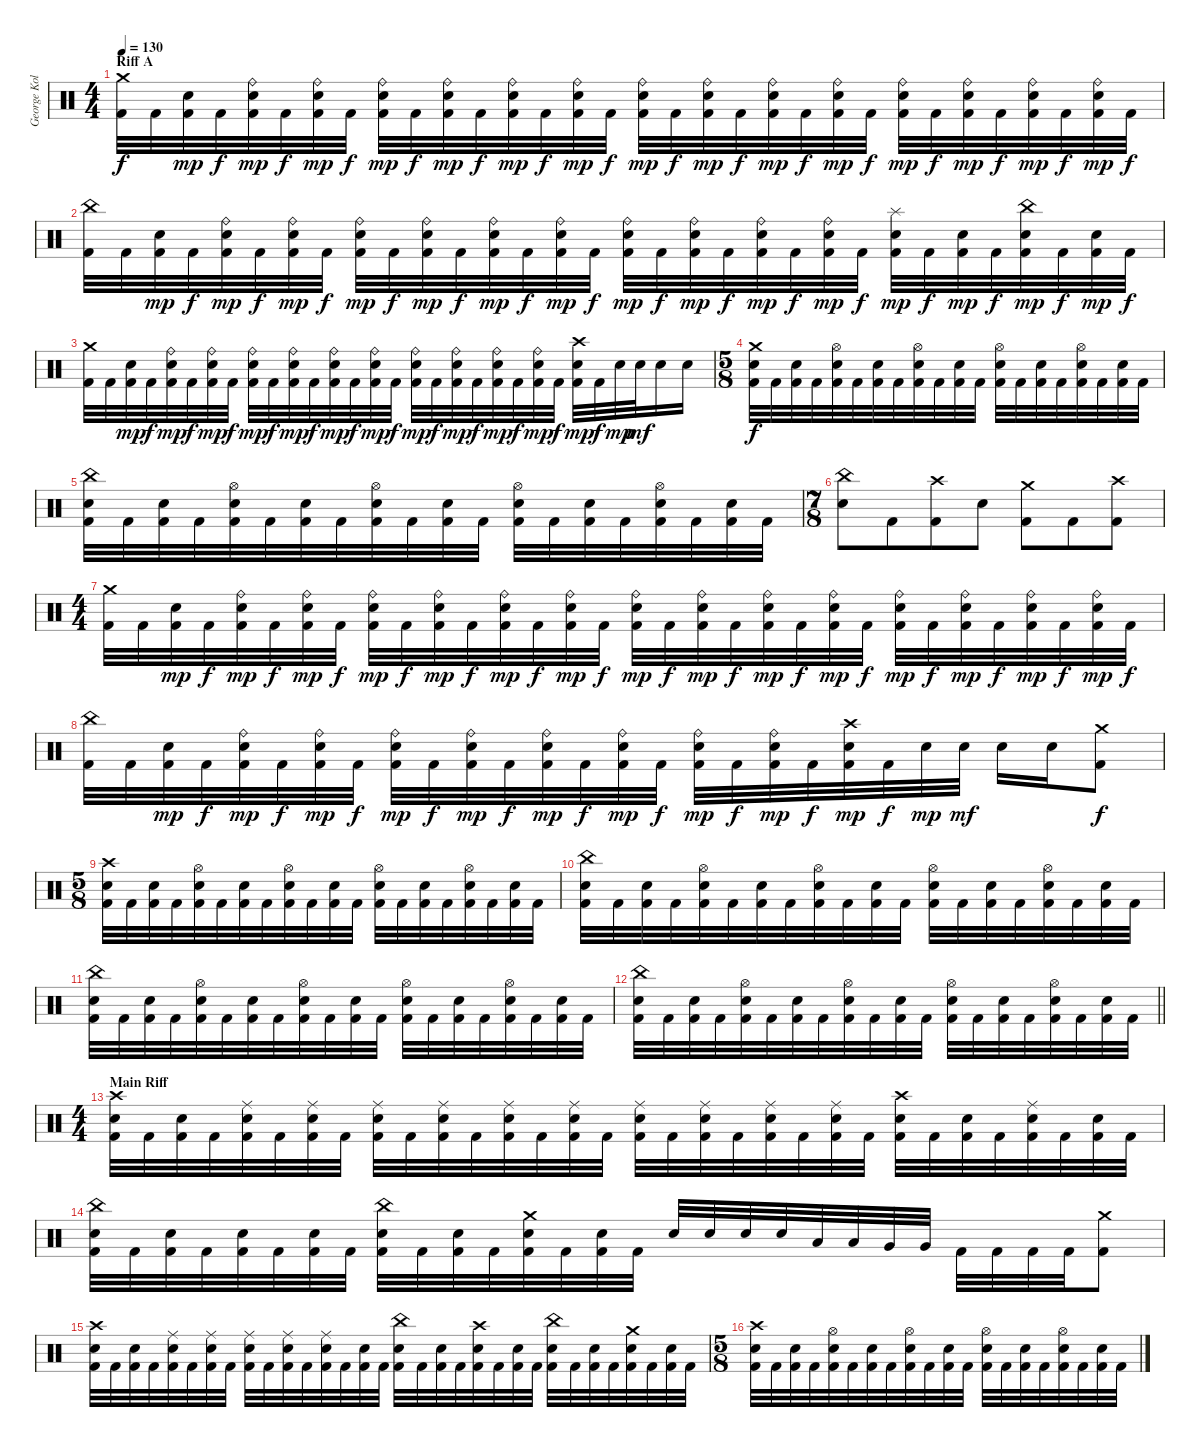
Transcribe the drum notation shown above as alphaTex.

\track ("George Kollias" "George Kol") {instrument percussion}
\staff {score}
\articulation defaults
\ts (4 4)
\section ("" "Riff A")
\tempo 130
\clef neutral
\ks c
("Crash medium (hit)" "Kick (hit) 2").32{dy f} "Kick (hit) 2".32 ("Electric Snare (hit)" "Kick (hit) 2").32{dy mp} "Kick (hit) 2".32{dy f} ("Ride (bell)" "Electric Snare (hit)" "Kick (hit) 2").32{dy mp} "Kick (hit) 2".32{dy f} ("Ride (bell)" "Electric Snare (hit)" "Kick (hit) 2").32{dy mp} "Kick (hit) 2".32{dy f} ("Ride (bell)" "Electric Snare (hit)" "Kick (hit) 2").32{dy mp} "Kick (hit) 2".32{dy f} ("Ride (bell)" "Electric Snare (hit)" "Kick (hit) 2").32{dy mp} "Kick (hit) 2".32{dy f} ("Ride (bell)" "Electric Snare (hit)" "Kick (hit) 2").32{dy mp} "Kick (hit) 2".32{dy f} ("Ride (bell)" "Electric Snare (hit)" "Kick (hit) 2").32{dy mp} "Kick (hit) 2".32{dy f} ("Ride (bell)" "Electric Snare (hit)" "Kick (hit) 2").32{dy mp} "Kick (hit) 2".32{dy f} ("Ride (bell)" "Electric Snare (hit)" "Kick (hit) 2").32{dy mp} "Kick (hit) 2".32{dy f} ("Ride (bell)" "Electric Snare (hit)" "Kick (hit) 2").32{dy mp} "Kick (hit) 2".32{dy f} ("Ride (bell)" "Electric Snare (hit)" "Kick (hit) 2").32{dy mp} "Kick (hit) 2".32{dy f} ("Ride (bell)" "Electric Snare (hit)" "Kick (hit) 2").32{dy mp} "Kick (hit) 2".32{dy f} ("Ride (bell)" "Electric Snare (hit)" "Kick (hit) 2").32{dy mp} "Kick (hit) 2".32{dy f} ("Ride (bell)" "Electric Snare (hit)" "Kick (hit) 2").32{dy mp} "Kick (hit) 2".32{dy f} ("Ride (bell)" "Electric Snare (hit)" "Kick (hit) 2").32{dy mp} "Kick (hit) 2".32{dy f} |
("China (hit)" "Kick (hit) 2").32 "Kick (hit) 2".32 ("Electric Snare (hit)" "Kick (hit) 2").32{dy mp} "Kick (hit) 2".32{dy f} ("Ride (bell)" "Electric Snare (hit)" "Kick (hit) 2").32{dy mp} "Kick (hit) 2".32{dy f} ("Ride (bell)" "Electric Snare (hit)" "Kick (hit) 2").32{dy mp} "Kick (hit) 2".32{dy f} ("Ride (bell)" "Electric Snare (hit)" "Kick (hit) 2").32{dy mp} "Kick (hit) 2".32{dy f} ("Ride (bell)" "Electric Snare (hit)" "Kick (hit) 2").32{dy mp} "Kick (hit) 2".32{dy f} ("Ride (bell)" "Electric Snare (hit)" "Kick (hit) 2").32{dy mp} "Kick (hit) 2".32{dy f} ("Ride (bell)" "Electric Snare (hit)" "Kick (hit) 2").32{dy mp} "Kick (hit) 2".32{dy f} ("Ride (bell)" "Electric Snare (hit)" "Kick (hit) 2").32{dy mp} "Kick (hit) 2".32{dy f} ("Ride (bell)" "Electric Snare (hit)" "Kick (hit) 2").32{dy mp} "Kick (hit) 2".32{dy f} ("Ride (bell)" "Electric Snare (hit)" "Kick (hit) 2").32{dy mp} "Kick (hit) 2".32{dy f} ("Ride (bell)" "Electric Snare (hit)" "Kick (hit) 2").32{dy mp} "Kick (hit) 2".32{dy f} ("Splash (hit)" "Electric Snare (hit)" "Kick (hit) 2").32{dy mp} "Kick (hit) 2".32{dy f} ("Electric Snare (hit)" "Kick (hit) 2").32{dy mp} "Kick (hit) 2".32{dy f} ("China (hit)" "Electric Snare (hit)" "Kick (hit) 2").32{dy mp} "Kick (hit) 2".32{dy f} ("Electric Snare (hit)" "Kick (hit) 2").32{dy mp} "Kick (hit) 2".32{dy f} |
("Crash medium (hit)" "Kick (hit) 2").32 "Kick (hit) 2".32 ("Electric Snare (hit)" "Kick (hit) 2").32{dy mp} "Kick (hit) 2".32{dy f} ("Ride (bell)" "Electric Snare (hit)" "Kick (hit) 2").32{dy mp} "Kick (hit) 2".32{dy f} ("Ride (bell)" "Electric Snare (hit)" "Kick (hit) 2").32{dy mp} "Kick (hit) 2".32{dy f} ("Ride (bell)" "Electric Snare (hit)" "Kick (hit) 2").32{dy mp} "Kick (hit) 2".32{dy f} ("Ride (bell)" "Electric Snare (hit)" "Kick (hit) 2").32{dy mp} "Kick (hit) 2".32{dy f} ("Ride (bell)" "Electric Snare (hit)" "Kick (hit) 2").32{dy mp} "Kick (hit) 2".32{dy f} ("Ride (bell)" "Electric Snare (hit)" "Kick (hit) 2").32{dy mp} "Kick (hit) 2".32{dy f} ("Ride (bell)" "Electric Snare (hit)" "Kick (hit) 2").32{dy mp} "Kick (hit) 2".32{dy f} ("Ride (bell)" "Electric Snare (hit)" "Kick (hit) 2").32{dy mp} "Kick (hit) 2".32{dy f} ("Ride (bell)" "Electric Snare (hit)" "Kick (hit) 2").32{dy mp} "Kick (hit) 2".32{dy f} ("Ride (bell)" "Electric Snare (hit)" "Kick (hit) 2").32{dy mp} "Kick (hit) 2".32{dy f} ("Crash high (hit)" "Electric Snare (hit)" "Kick (hit) 2").32{dy mp} "Kick (hit) 2".32{dy f} "Electric Snare (hit)".32{dy mp} "Electric Snare (hit)".32{dy mf} "Electric Snare (hit)".16 "Electric Snare (hit)".16 |
\ts (5 8)
("Crash medium (hit)" "Electric Snare (hit)" "Kick (hit) 2").32{dy f} "Kick (hit) 2".32 ("Electric Snare (hit)" "Kick (hit) 2").32 "Kick (hit) 2".32 ("Hi-Hat (open)" "Electric Snare (hit)" "Kick (hit) 2").32 "Kick (hit) 2".32 ("Electric Snare (hit)" "Kick (hit) 2").32 "Kick (hit) 2".32 ("Hi-Hat (open)" "Electric Snare (hit)" "Kick (hit) 2").32 "Kick (hit) 2".32 ("Electric Snare (hit)" "Kick (hit) 2").32 "Kick (hit) 2".32 ("Hi-Hat (open)" "Electric Snare (hit)" "Kick (hit) 2").32 "Kick (hit) 2".32 ("Electric Snare (hit)" "Kick (hit) 2").32 "Kick (hit) 2".32 ("Hi-Hat (open)" "Electric Snare (hit)" "Kick (hit) 2").32 "Kick (hit) 2".32 ("Electric Snare (hit)" "Kick (hit) 2").32 "Kick (hit) 2".32 |
("China (hit)" "Electric Snare (hit)" "Kick (hit) 2").32 "Kick (hit) 2".32 ("Electric Snare (hit)" "Kick (hit) 2").32 "Kick (hit) 2".32 ("Hi-Hat (open)" "Electric Snare (hit)" "Kick (hit) 2").32 "Kick (hit) 2".32 ("Electric Snare (hit)" "Kick (hit) 2").32 "Kick (hit) 2".32 ("Hi-Hat (open)" "Electric Snare (hit)" "Kick (hit) 2").32 "Kick (hit) 2".32 ("Electric Snare (hit)" "Kick (hit) 2").32 "Kick (hit) 2".32 ("Hi-Hat (open)" "Electric Snare (hit)" "Kick (hit) 2").32 "Kick (hit) 2".32 ("Electric Snare (hit)" "Kick (hit) 2").32 "Kick (hit) 2".32 ("Hi-Hat (open)" "Electric Snare (hit)" "Kick (hit) 2").32 "Kick (hit) 2".32 ("Electric Snare (hit)" "Kick (hit) 2").32 "Kick (hit) 2".32 |
\ts (7 8)
("China (hit)" "Electric Snare (hit)").8 "Kick (hit) 2".8 ("Crash high (hit)" "Kick (hit) 2").8 "Electric Snare (hit)".8 ("Crash medium (hit)" "Kick (hit) 2").8 "Kick (hit) 2".8 ("Crash high (hit)" "Kick (hit) 2").8 |
\ts (4 4)
("Crash medium (hit)" "Kick (hit) 2").32 "Kick (hit) 2".32 ("Electric Snare (hit)" "Kick (hit) 2").32{dy mp} "Kick (hit) 2".32{dy f} ("Ride (bell)" "Electric Snare (hit)" "Kick (hit) 2").32{dy mp} "Kick (hit) 2".32{dy f} ("Ride (bell)" "Electric Snare (hit)" "Kick (hit) 2").32{dy mp} "Kick (hit) 2".32{dy f} ("Ride (bell)" "Electric Snare (hit)" "Kick (hit) 2").32{dy mp} "Kick (hit) 2".32{dy f} ("Ride (bell)" "Electric Snare (hit)" "Kick (hit) 2").32{dy mp} "Kick (hit) 2".32{dy f} ("Ride (bell)" "Electric Snare (hit)" "Kick (hit) 2").32{dy mp} "Kick (hit) 2".32{dy f} ("Ride (bell)" "Electric Snare (hit)" "Kick (hit) 2").32{dy mp} "Kick (hit) 2".32{dy f} ("Ride (bell)" "Electric Snare (hit)" "Kick (hit) 2").32{dy mp} "Kick (hit) 2".32{dy f} ("Ride (bell)" "Electric Snare (hit)" "Kick (hit) 2").32{dy mp} "Kick (hit) 2".32{dy f} ("Ride (bell)" "Electric Snare (hit)" "Kick (hit) 2").32{dy mp} "Kick (hit) 2".32{dy f} ("Ride (bell)" "Electric Snare (hit)" "Kick (hit) 2").32{dy mp} "Kick (hit) 2".32{dy f} ("Ride (bell)" "Electric Snare (hit)" "Kick (hit) 2").32{dy mp} "Kick (hit) 2".32{dy f} ("Ride (bell)" "Electric Snare (hit)" "Kick (hit) 2").32{dy mp} "Kick (hit) 2".32{dy f} ("Ride (bell)" "Electric Snare (hit)" "Kick (hit) 2").32{dy mp} "Kick (hit) 2".32{dy f} ("Ride (bell)" "Electric Snare (hit)" "Kick (hit) 2").32{dy mp} "Kick (hit) 2".32{dy f} |
("China (hit)" "Kick (hit) 2").32 "Kick (hit) 2".32 ("Electric Snare (hit)" "Kick (hit) 2").32{dy mp} "Kick (hit) 2".32{dy f} ("Ride (bell)" "Electric Snare (hit)" "Kick (hit) 2").32{dy mp} "Kick (hit) 2".32{dy f} ("Ride (bell)" "Electric Snare (hit)" "Kick (hit) 2").32{dy mp} "Kick (hit) 2".32{dy f} ("Ride (bell)" "Electric Snare (hit)" "Kick (hit) 2").32{dy mp} "Kick (hit) 2".32{dy f} ("Ride (bell)" "Electric Snare (hit)" "Kick (hit) 2").32{dy mp} "Kick (hit) 2".32{dy f} ("Ride (bell)" "Electric Snare (hit)" "Kick (hit) 2").32{dy mp} "Kick (hit) 2".32{dy f} ("Ride (bell)" "Electric Snare (hit)" "Kick (hit) 2").32{dy mp} "Kick (hit) 2".32{dy f} ("Ride (bell)" "Electric Snare (hit)" "Kick (hit) 2").32{dy mp} "Kick (hit) 2".32{dy f} ("Ride (bell)" "Electric Snare (hit)" "Kick (hit) 2").32{dy mp} "Kick (hit) 2".32{dy f} ("Crash high (hit)" "Electric Snare (hit)" "Kick (hit) 2").32{dy mp} "Kick (hit) 2".32{dy f} "Electric Snare (hit)".32{dy mp} "Electric Snare (hit)".32{dy mf} "Electric Snare (hit)".16 "Electric Snare (hit)".16 ("Crash medium (hit)" "Kick (hit) 2").8{dy f} |
\ts (5 8)
("Crash high (hit)" "Electric Snare (hit)" "Kick (hit) 2").32 "Kick (hit) 2".32 ("Electric Snare (hit)" "Kick (hit) 2").32 "Kick (hit) 2".32 ("Hi-Hat (open)" "Electric Snare (hit)" "Kick (hit) 2").32 "Kick (hit) 2".32 ("Electric Snare (hit)" "Kick (hit) 2").32 "Kick (hit) 2".32 ("Hi-Hat (open)" "Electric Snare (hit)" "Kick (hit) 2").32 "Kick (hit) 2".32 ("Electric Snare (hit)" "Kick (hit) 2").32 "Kick (hit) 2".32 ("Hi-Hat (open)" "Electric Snare (hit)" "Kick (hit) 2").32 "Kick (hit) 2".32 ("Electric Snare (hit)" "Kick (hit) 2").32 "Kick (hit) 2".32 ("Hi-Hat (open)" "Electric Snare (hit)" "Kick (hit) 2").32 "Kick (hit) 2".32 ("Electric Snare (hit)" "Kick (hit) 2").32 "Kick (hit) 2".32 |
("China (hit)" "Electric Snare (hit)" "Kick (hit) 2").32 "Kick (hit) 2".32 ("Electric Snare (hit)" "Kick (hit) 2").32 "Kick (hit) 2".32 ("Hi-Hat (open)" "Electric Snare (hit)" "Kick (hit) 2").32 "Kick (hit) 2".32 ("Electric Snare (hit)" "Kick (hit) 2").32 "Kick (hit) 2".32 ("Hi-Hat (open)" "Electric Snare (hit)" "Kick (hit) 2").32 "Kick (hit) 2".32 ("Electric Snare (hit)" "Kick (hit) 2").32 "Kick (hit) 2".32 ("Hi-Hat (open)" "Electric Snare (hit)" "Kick (hit) 2").32 "Kick (hit) 2".32 ("Electric Snare (hit)" "Kick (hit) 2").32 "Kick (hit) 2".32 ("Hi-Hat (open)" "Electric Snare (hit)" "Kick (hit) 2").32 "Kick (hit) 2".32 ("Electric Snare (hit)" "Kick (hit) 2").32 "Kick (hit) 2".32 |
("China (hit)" "Electric Snare (hit)" "Kick (hit) 2").32 "Kick (hit) 2".32 ("Electric Snare (hit)" "Kick (hit) 2").32 "Kick (hit) 2".32 ("Hi-Hat (open)" "Electric Snare (hit)" "Kick (hit) 2").32 "Kick (hit) 2".32 ("Electric Snare (hit)" "Kick (hit) 2").32 "Kick (hit) 2".32 ("Hi-Hat (open)" "Electric Snare (hit)" "Kick (hit) 2").32 "Kick (hit) 2".32 ("Electric Snare (hit)" "Kick (hit) 2").32 "Kick (hit) 2".32 ("Hi-Hat (open)" "Electric Snare (hit)" "Kick (hit) 2").32 "Kick (hit) 2".32 ("Electric Snare (hit)" "Kick (hit) 2").32 "Kick (hit) 2".32 ("Hi-Hat (open)" "Electric Snare (hit)" "Kick (hit) 2").32 "Kick (hit) 2".32 ("Electric Snare (hit)" "Kick (hit) 2").32 "Kick (hit) 2".32 |
\barLineRight lightlight
("China (hit)" "Electric Snare (hit)" "Kick (hit) 2").32 "Kick (hit) 2".32 ("Electric Snare (hit)" "Kick (hit) 2").32 "Kick (hit) 2".32 ("Hi-Hat (open)" "Electric Snare (hit)" "Kick (hit) 2").32 "Kick (hit) 2".32 ("Electric Snare (hit)" "Kick (hit) 2").32 "Kick (hit) 2".32 ("Hi-Hat (open)" "Electric Snare (hit)" "Kick (hit) 2").32 "Kick (hit) 2".32 ("Electric Snare (hit)" "Kick (hit) 2").32 "Kick (hit) 2".32 ("Hi-Hat (open)" "Electric Snare (hit)" "Kick (hit) 2").32 "Kick (hit) 2".32 ("Electric Snare (hit)" "Kick (hit) 2").32 "Kick (hit) 2".32 ("Hi-Hat (open)" "Electric Snare (hit)" "Kick (hit) 2").32 "Kick (hit) 2".32 ("Electric Snare (hit)" "Kick (hit) 2").32 "Kick (hit) 2".32 |
\ts (4 4)
\section ("" "Main Riff")
("Crash high (hit)" "Electric Snare (hit)" "Kick (hit) 2").32 "Kick (hit) 2".32 ("Electric Snare (hit)" "Kick (hit) 2").32 "Kick (hit) 2".32 ("Ride (middle)" "Electric Snare (hit)" "Kick (hit) 2").32 "Kick (hit) 2".32 ("Ride (middle)" "Electric Snare (hit)" "Kick (hit) 2").32 "Kick (hit) 2".32 ("Ride (middle)" "Electric Snare (hit)" "Kick (hit) 2").32 "Kick (hit) 2".32 ("Ride (middle)" "Electric Snare (hit)" "Kick (hit) 2").32 "Kick (hit) 2".32 ("Ride (middle)" "Electric Snare (hit)" "Kick (hit) 2").32 "Kick (hit) 2".32 ("Ride (middle)" "Electric Snare (hit)" "Kick (hit) 2").32 "Kick (hit) 2".32 ("Ride (middle)" "Electric Snare (hit)" "Kick (hit) 2").32 "Kick (hit) 2".32 ("Ride (middle)" "Electric Snare (hit)" "Kick (hit) 2").32 "Kick (hit) 2".32 ("Ride (middle)" "Electric Snare (hit)" "Kick (hit) 2").32 "Kick (hit) 2".32 ("Ride (middle)" "Electric Snare (hit)" "Kick (hit) 2").32 "Kick (hit) 2".32 ("Crash high (hit)" "Electric Snare (hit)" "Kick (hit) 2").32 "Kick (hit) 2".32 ("Electric Snare (hit)" "Kick (hit) 2").32 "Kick (hit) 2".32 ("Ride (middle)" "Electric Snare (hit)" "Kick (hit) 2").32 "Kick (hit) 2".32 ("Electric Snare (hit)" "Kick (hit) 2").32 "Kick (hit) 2".32 |
("China (hit)" "Electric Snare (hit)" "Kick (hit) 2").32 "Kick (hit) 2".32 ("Electric Snare (hit)" "Kick (hit) 2").32 "Kick (hit) 2".32 ("Electric Snare (hit)" "Kick (hit) 2").32 "Kick (hit) 2".32 ("Electric Snare (hit)" "Kick (hit) 2").32 "Kick (hit) 2".32 ("China (hit)" "Electric Snare (hit)" "Kick (hit) 2").32 "Kick (hit) 2".32 ("Electric Snare (hit)" "Kick (hit) 2").32 "Kick (hit) 2".32 ("Crash medium (hit)" "Electric Snare (hit)" "Kick (hit) 2").32 "Kick (hit) 2".32 ("Electric Snare (hit)" "Kick (hit) 2").32 "Kick (hit) 2".32 "Electric Snare (hit)".32 "Electric Snare (hit)".32 "Electric Snare (hit)".32 "Electric Snare (hit)".32 "Low Tom (hit)".32 "Low Tom (hit)".32 "Very Low Tom (hit)".32 "Very Low Tom (hit)".32 "Kick (hit) 2".32 "Kick (hit) 2".32 "Kick (hit) 2".32 "Kick (hit) 2".32 ("Crash medium (hit)" "Kick (hit) 2").8 |
("Crash high (hit)" "Electric Snare (hit)" "Kick (hit) 2").32 "Kick (hit) 2".32 ("Electric Snare (hit)" "Kick (hit) 2").32 "Kick (hit) 2".32 ("Ride (middle)" "Electric Snare (hit)" "Kick (hit) 2").32 "Kick (hit) 2".32 ("Ride (middle)" "Electric Snare (hit)" "Kick (hit) 2").32 "Kick (hit) 2".32 ("Ride (middle)" "Electric Snare (hit)" "Kick (hit) 2").32 "Kick (hit) 2".32 ("Ride (middle)" "Electric Snare (hit)" "Kick (hit) 2").32 "Kick (hit) 2".32 ("Ride (middle)" "Electric Snare (hit)" "Kick (hit) 2").32 "Kick (hit) 2".32 ("Electric Snare (hit)" "Kick (hit) 2").32 "Kick (hit) 2".32 ("China (hit)" "Electric Snare (hit)" "Kick (hit) 2").32 "Kick (hit) 2".32 ("Electric Snare (hit)" "Kick (hit) 2").32 "Kick (hit) 2".32 ("Crash high (hit)" "Electric Snare (hit)" "Kick (hit) 2").32 "Kick (hit) 2".32 ("Electric Snare (hit)" "Kick (hit) 2").32 "Kick (hit) 2".32 ("China (hit)" "Electric Snare (hit)" "Kick (hit) 2").32 "Kick (hit) 2".32 ("Electric Snare (hit)" "Kick (hit) 2").32 "Kick (hit) 2".32 ("Crash medium (hit)" "Electric Snare (hit)" "Kick (hit) 2").32 "Kick (hit) 2".32 ("Electric Snare (hit)" "Kick (hit) 2").32 "Kick (hit) 2".32 |
\ts (5 8)
("Crash high (hit)" "Electric Snare (hit)" "Kick (hit) 2").32 "Kick (hit) 2".32 ("Electric Snare (hit)" "Kick (hit) 2").32 "Kick (hit) 2".32 ("Hi-Hat (open)" "Electric Snare (hit)" "Kick (hit) 2").32 "Kick (hit) 2".32 ("Electric Snare (hit)" "Kick (hit) 2").32 "Kick (hit) 2".32 ("Hi-Hat (open)" "Electric Snare (hit)" "Kick (hit) 2").32 "Kick (hit) 2".32 ("Electric Snare (hit)" "Kick (hit) 2").32 "Kick (hit) 2".32 ("Hi-Hat (open)" "Electric Snare (hit)" "Kick (hit) 2").32 "Kick (hit) 2".32 ("Electric Snare (hit)" "Kick (hit) 2").32 "Kick (hit) 2".32 ("Hi-Hat (open)" "Electric Snare (hit)" "Kick (hit) 2").32 "Kick (hit) 2".32 ("Electric Snare (hit)" "Kick (hit) 2").32 "Kick (hit) 2".32
